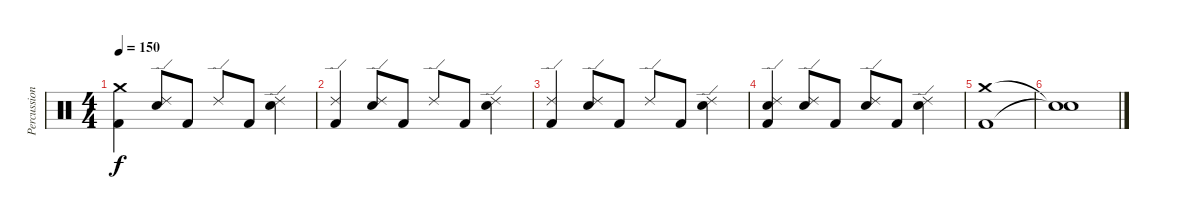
\track ("Percussions" "Percussion") {instrument percussion}
\staff {score}
\articulation defaults
\ts (4 4)
\tempo 150
\clef neutral
\ks c
("Crash medium (hit)" "Kick (hit) 2").4{dy f} ("Ride (edge) 2" "Electric Snare (hit)").8 "Kick (hit) 2".8 "Ride (edge) 2".8 "Kick (hit) 2".8 ("Ride (edge) 2" "Electric Snare (hit)").4 |
("Ride (edge) 2" "Kick (hit) 2").4 ("Ride (edge) 2" "Electric Snare (hit)").8 "Kick (hit) 2".8 "Ride (edge) 2".8 "Kick (hit) 2".8 ("Ride (edge) 2" "Electric Snare (hit)").4 |
("Ride (edge) 2" "Kick (hit) 2").4 ("Ride (edge) 2" "Electric Snare (hit)").8 "Kick (hit) 2".8 "Ride (edge) 2".8 "Kick (hit) 2".8 ("Ride (edge) 2" "Electric Snare (hit)").4 |
("Ride (edge) 2" "Electric Snare (hit)" "Kick (hit) 2").4 ("Ride (edge) 2" "Electric Snare (hit)").8 "Kick (hit) 2".8 ("Ride (edge) 2" "Electric Snare (hit)").8 "Kick (hit) 2".8 ("Ride (edge) 2" "Electric Snare (hit)").4 |
("Crash medium (hit)" "Kick (hit) 2").1 |
("Snare (hit)"{t} "Snare (hit)"{t}).1
